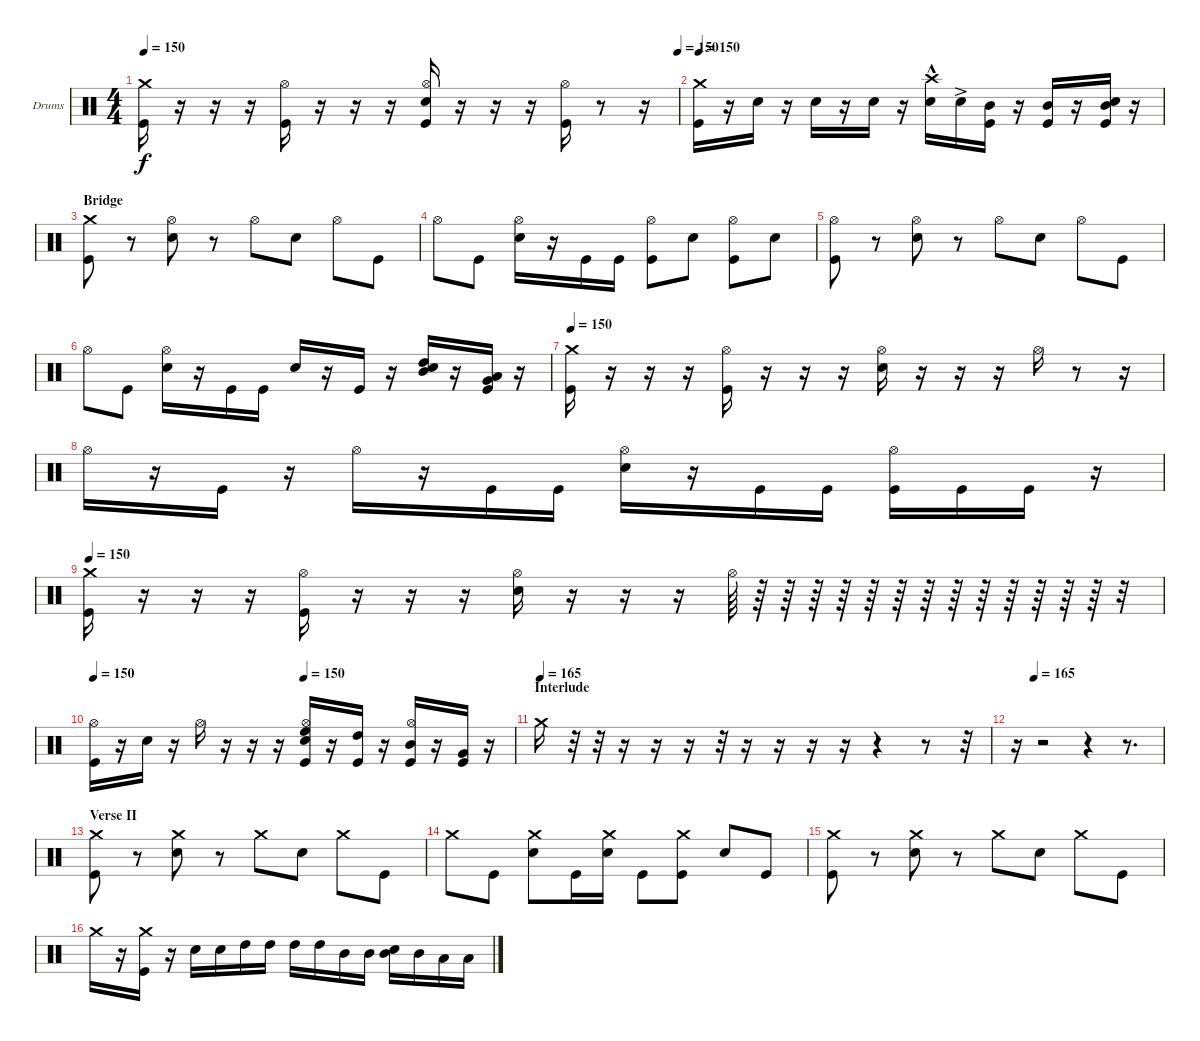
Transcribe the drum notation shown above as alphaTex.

\bracketExtendMode groupsimilarinstruments
\firstSystemTrackNameOrientation horizontal
\otherSystemsTrackNameOrientation horizontal
\track ("Cory La Quay" "Drums") {instrument percussion}
\staff {score}
\articulation defaults
\ts (4 4)
\tempo 150
\tempo (150 1)
\clef neutral
\ks c
("Crash medium (hit)" "Kick (hit)").16{dy f} r.16 r.16 r.16 ("Hi-Hat (open)" "Kick (hit)").16 r.16 r.16 r.16 ("Hi-Hat (open)" "Snare (hit) 2" "Kick (hit)").16 r.16 r.16 r.16 ("Hi-Hat (open)" "Kick (hit)").16 r.8 r.16 |
\tempo 150
("Crash medium (hit)" "Kick (hit)").16 r.16 "Snare (hit) 2".16 r.16 "Snare (hit) 2".16 r.16 "Snare (hit) 2".16 r.16 ("Crash high (hit)" "Snare (hit) 2"{hac}).16 "Snare (hit) 2"{ac}.16 ("Kick (hit)" "Mid Tom (hit)").16 r.16 ("Kick (hit)" "Mid Tom (hit)").16 r.16 ("Snare (hit) 2" "Kick (hit)" "Mid Tom (hit)").16 r.16 |
\section ("" "Bridge")
("Crash medium (hit)" "Kick (hit)").8 r.8 ("Hi-Hat (open)" "Snare (hit) 2").8 r.8 "Hi-Hat (open)".8 "Snare (hit) 2".8 "Hi-Hat (open)".8 "Kick (hit)".8 |
"Hi-Hat (open)".8 "Kick (hit)".8 ("Hi-Hat (open)" "Snare (hit) 2").16 r.16 "Kick (hit)".16 "Kick (hit)".16 ("Hi-Hat (open)" "Kick (hit)").8 "Snare (hit) 2".8 ("Hi-Hat (open)" "Kick (hit)").8 "Snare (hit) 2".8 |
("Hi-Hat (open)" "Kick (hit)").8 r.8 ("Hi-Hat (open)" "Snare (hit) 2").8 r.8 "Hi-Hat (open)".8 "Snare (hit) 2".8 "Hi-Hat (open)".8 "Kick (hit)".8 |
"Hi-Hat (open)".8 "Kick (hit)".8 ("Hi-Hat (open)" "Snare (hit) 2").16 r.16 "Kick (hit)".16 "Kick (hit)".16 "Snare (hit) 2".16 r.16 "Kick (hit)".16 r.16 ("Snare (hit) 2" "High Tom (hit)" "Mid Tom (hit)").16 r.16 ("Kick (hit)" "Low Tom (hit)" "Very Low Tom (hit)").16 r.16 |
\tempo 150
("Crash medium (hit)" "Kick (hit)").16 r.16 r.16 r.16 ("Hi-Hat (open)" "Kick (hit)").16 r.16 r.16 r.16 ("Hi-Hat (open)" "Snare (hit) 2").16 r.16 r.16 r.16 "Hi-Hat (open)".16 r.8 r.16 |
"Hi-Hat (open)".16 r.16 "Kick (hit)".16 r.16 "Hi-Hat (open)".16 r.16 "Kick (hit)".16 "Kick (hit)".16 ("Hi-Hat (open)" "Snare (hit) 2").16 r.16 "Kick (hit)".16 "Kick (hit)".16 ("Hi-Hat (open)" "Kick (hit)").16 "Kick (hit)".16 "Kick (hit)".16 r.16 |
\tempo 150
("Crash medium (hit)" "Kick (hit)").16 r.16 r.16 r.16 ("Hi-Hat (open)" "Kick (hit)").16 r.16 r.16 r.16 ("Hi-Hat (open)" "Snare (hit) 2").16 r.16 r.16 r.16 "Hi-Hat (open)".64 r.64 r.64 r.64 r.64 r.64 r.64 r.64 r.64 r.64 r.64 r.64 r.64 r.64 r.32 |
\tempo 150
\tempo (150 0.5)
("Hi-Hat (open)" "Kick (hit)").16 r.16 "Snare (hit) 2".16 r.16 "Hi-Hat (open)".16 r.16 r.16 r.16 ("Hi-Hat (open)" "Snare (hit) 2" "Kick (hit)" "High Floor Tom (hit)").16 r.16 ("Kick (hit)" "High Tom (hit)").16 r.16 ("Hi-Hat (open)" "Kick (hit)" "Mid Tom (hit)").16 r.16 ("Kick (hit)" "Very Low Tom (hit)").16 r.16 |
\section ("" "Interlude")
\tempo (165)
"Crash medium (hit)".16 r.32 r.32 r.16 r.16 r.16 r.32 r.16 r.16 r.16 r.16 r.4 r.8 r.32 |
\tempo (165 0.125)
r.16 r.2 r.4 r.8{d} |
\section ("" "Verse II")
("Crash medium (hit)" "Kick (hit)").8 r.8 ("Crash medium (hit)" "Snare (hit) 2").8 r.8 "Crash medium (hit)".8 "Snare (hit) 2".8 "Crash medium (hit)".8 "Kick (hit)".8 |
"Crash medium (hit)".8 "Kick (hit)".8 ("Crash medium (hit)" "Snare (hit) 2").8 "Kick (hit)".16 ("Crash medium (hit)" "Snare (hit) 2").16 "Kick (hit)".8 ("Crash medium (hit)" "Kick (hit)").8 "Snare (hit) 2".8 "Kick (hit)".8 |
("Crash medium (hit)" "Kick (hit)").8 r.8 ("Crash medium (hit)" "Snare (hit) 2").8 r.8 "Crash medium (hit)".8 "Snare (hit) 2".8 "Crash medium (hit)".8 "Kick (hit)".8 |
"Crash medium (hit)".16 r.16 ("Kick (hit)" "Crash medium (hit)").16 r.16 "Snare (hit) 2".16 "Snare (hit) 2".16 "High Tom (hit)".16 "High Tom (hit)".16 "High Tom (hit)".16 "High Tom (hit)".16 "Mid Tom (hit)".16 "Mid Tom (hit)".16 ("Mid Tom (hit)" "Snare (hit) 2").16 "Mid Tom (hit)".16 "Low Tom (hit)".16 "Low Tom (hit)".16
